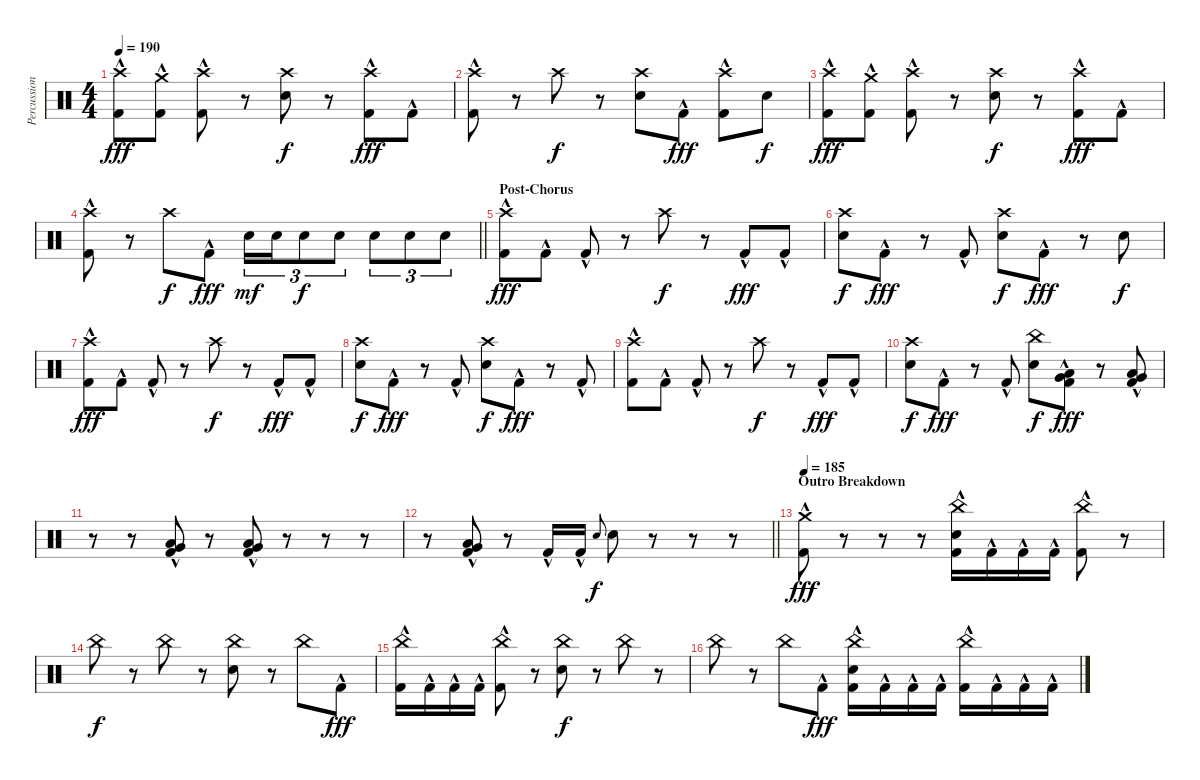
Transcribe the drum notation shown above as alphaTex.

\track ("Percussion" "Percussion") {instrument percussion}
\staff {score}
\articulation defaults
\ts (4 4)
\tempo 190
\clef neutral
\ks c
("Crash high (hit)" "Kick (hit) 2"{hac}).8{dy fff} ("Crash medium (hit)" "Kick (hit) 2"{hac}).8 ("Crash high (hit)" "Kick (hit) 2"{hac}).8 r.8 ("Crash high (hit)" "Snare (hit) 2").8{dy f} r.8 ("Crash high (hit)" "Kick (hit) 2"{hac}).8{dy fff} "Kick (hit) 2"{hac}.8 |
("Crash high (hit)" "Kick (hit) 2"{hac}).8 r.8 "Crash high (hit)".8{dy f} r.8 ("Crash high (hit)" "Snare (hit) 2").8 "Kick (hit) 2"{hac}.8{dy fff} ("Crash high (hit)" "Kick (hit) 2"{hac}).8 "Snare (hit) 2".8{dy f} |
("Crash high (hit)" "Kick (hit) 2"{hac}).8{dy fff} ("Crash medium (hit)" "Kick (hit) 2"{hac}).8 ("Crash high (hit)" "Kick (hit) 2"{hac}).8 r.8 ("Crash high (hit)" "Snare (hit) 2").8{dy f} r.8 ("Crash high (hit)" "Kick (hit) 2"{hac}).8{dy fff} "Kick (hit) 2"{hac}.8 |
\barLineRight lightlight
("Crash high (hit)" "Kick (hit) 2"{hac}).8 r.8 "Crash high (hit)".8{dy f} "Kick (hit) 2"{hac}.8{dy fff} "Snare (hit) 2".16{tu (3 2) dy mf} "Snare (hit) 2".16{tu (3 2)} "Snare (hit) 2".8{tu (3 2) dy f} "Snare (hit) 2".8{tu (3 2)} "Snare (hit) 2".8{tu (3 2)} "Snare (hit) 2".8{tu (3 2)} "Snare (hit) 2".8{tu (3 2)} |
\section ("" "Post-Chorus")
("Crash high (hit)" "Kick (hit) 2"{hac}).8{dy fff} "Kick (hit) 2"{hac}.8 "Kick (hit) 2"{hac}.8 r.8 "Crash high (hit)".8{dy f} r.8 "Kick (hit) 2"{hac}.8{dy fff} "Kick (hit) 2"{hac}.8 |
("Crash high (hit)" "Snare (hit) 2").8{dy f} "Kick (hit) 2"{hac}.8{dy fff} r.8 "Kick (hit) 2"{hac}.8 ("Crash high (hit)" "Snare (hit) 2").8{dy f} "Kick (hit) 2"{hac}.8{dy fff} r.8 "Snare (hit) 2".8{dy f} |
("Crash high (hit)" "Kick (hit) 2"{hac}).8{dy fff} "Kick (hit) 2"{hac}.8 "Kick (hit) 2"{hac}.8 r.8 "Crash high (hit)".8{dy f} r.8 "Kick (hit) 2"{hac}.8{dy fff} "Kick (hit) 2"{hac}.8 |
("Crash high (hit)" "Snare (hit) 2").8{dy f} "Kick (hit) 2"{hac}.8{dy fff} r.8 "Kick (hit) 2"{hac}.8 ("Crash high (hit)" "Snare (hit) 2").8{dy f} "Kick (hit) 2"{hac}.8{dy fff} r.8 "Kick (hit) 2"{hac}.8 |
("Crash high (hit)" "Kick (hit) 2"{hac}).8 "Kick (hit) 2"{hac}.8 "Kick (hit) 2"{hac}.8 r.8 "Crash high (hit)".8{dy f} r.8 "Kick (hit) 2"{hac}.8{dy fff} "Kick (hit) 2"{hac}.8 |
("Crash high (hit)" "Snare (hit) 2").8{dy f} "Kick (hit) 2"{hac}.8{dy fff} r.8 "Kick (hit) 2"{hac}.8 ("China (hit)" "Snare (hit) 2").8{dy f} ("Low Floor Tom (hit)"{hac} "Very Low Tom (hit)"{hac} "Kick (hit) 2"{hac}).8{dy fff} r.8 ("Low Floor Tom (hit)"{hac} "Very Low Tom (hit)"{hac} "Kick (hit) 2"{hac}).8 |
r.8 r.8 ("Low Floor Tom (hit)"{hac} "Very Low Tom (hit)"{hac} "Kick (hit) 2"{hac}).8 r.8 ("Low Floor Tom (hit)"{hac} "Very Low Tom (hit)"{hac} "Kick (hit) 2"{hac}).8 r.8 r.8 r.8 |
\barLineRight lightlight
r.8 ("Low Floor Tom (hit)"{hac} "Very Low Tom (hit)"{hac} "Kick (hit) 2"{hac}).8 r.8 "Kick (hit) 2"{hac}.16 "Kick (hit) 2"{hac}.16 "Snare (hit) 2".8{gr onbeat dy f} "Snare (hit) 2".8 r.8 r.8 r.8 |
\section ("" "Outro Breakdown")
\tempo 185
("Crash medium (hit)" "Kick (hit) 2"{hac}).8{dy fff} r.8 r.8 r.8 ("China (hit)" "Snare (hit) 2" "Kick (hit) 2"{hac}).16 "Kick (hit) 2"{hac}.16 "Kick (hit) 2"{hac}.16 "Kick (hit) 2"{hac}.16 ("China (hit)" "Kick (hit) 2"{hac}).8 r.8 |
"China (hit)".8{dy f} r.8 "China (hit)".8 r.8 ("China (hit)" "Snare (hit) 2").8 r.8 "China (hit)".8 "Kick (hit) 2"{hac}.8{dy fff} |
("China (hit)" "Kick (hit) 2"{hac}).16 "Kick (hit) 2"{hac}.16 "Kick (hit) 2"{hac}.16 "Kick (hit) 2"{hac}.16 ("China (hit)" "Kick (hit) 2"{hac}).8 r.8 ("China (hit)" "Snare (hit) 2").8{dy f} r.8 "China (hit)".8 r.8 |
"China (hit)".8 r.8 "China (hit)".8 "Kick (hit) 2"{hac}.8{dy fff} ("China (hit)" "Snare (hit) 2" "Kick (hit) 2"{hac}).16 "Kick (hit) 2"{hac}.16 "Kick (hit) 2"{hac}.16 "Kick (hit) 2"{hac}.16 ("China (hit)" "Kick (hit) 2"{hac}).16 "Kick (hit) 2"{hac}.16 "Kick (hit) 2"{hac}.16 "Kick (hit) 2"{hac}.16
